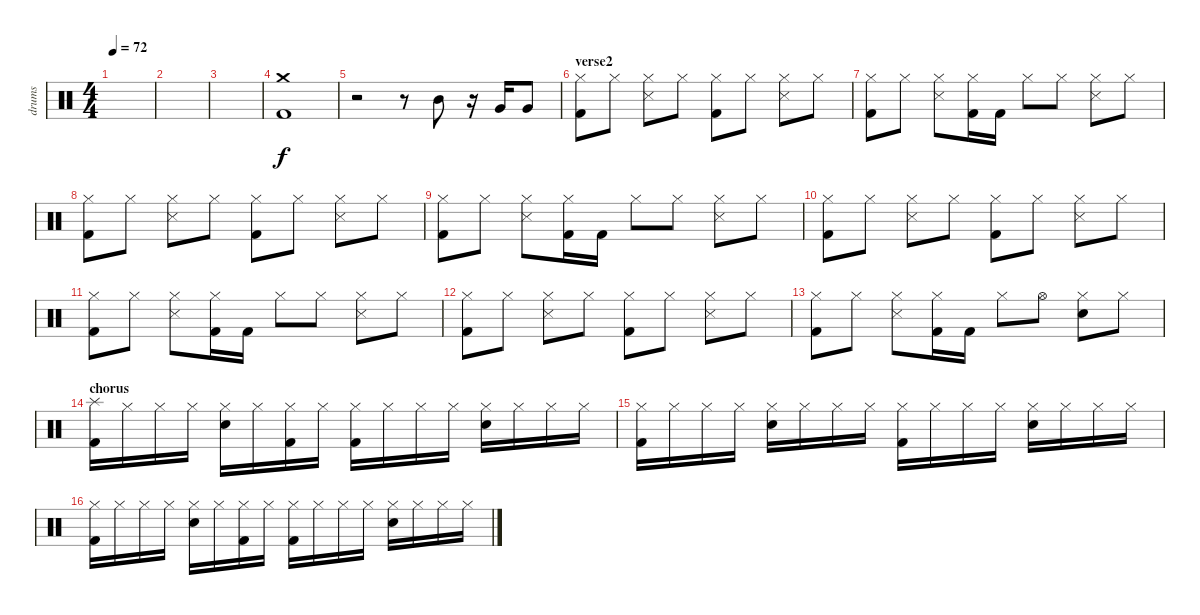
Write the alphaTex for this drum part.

\track ("drums" "drums") {instrument percussion}
\staff {score}
\articulation defaults
\ts (4 4)
\tempo 72
\clef neutral
\ks c
|
|
|
("Crash medium (hit)" "Kick (hit) 2").1 |
r.2 r.8 "Mid Tom (hit)".8 r.16 "Very Low Tom (hit)".16 "Very Low Tom (hit)".8 |
\section ("" "verse2")
("Hi-Hat (closed)" "Kick (hit) 2").8 "Hi-Hat (closed)".8 ("Hi-Hat (closed)" "Snare (side stick) 3").8 "Hi-Hat (closed)".8 ("Hi-Hat (closed)" "Kick (hit) 2").8 "Hi-Hat (closed)".8 ("Hi-Hat (closed)" "Snare (side stick) 3").8 "Hi-Hat (closed)".8 |
("Hi-Hat (closed)" "Kick (hit) 2").8 "Hi-Hat (closed)".8 ("Hi-Hat (closed)" "Snare (side stick) 3").8 ("Hi-Hat (closed)" "Kick (hit) 2").16 "Kick (hit) 2".16 "Hi-Hat (closed)".8 "Hi-Hat (closed)".8 ("Hi-Hat (closed)" "Snare (side stick) 3").8 "Hi-Hat (closed)".8 |
("Hi-Hat (closed)" "Kick (hit) 2").8 "Hi-Hat (closed)".8 ("Hi-Hat (closed)" "Snare (side stick) 3").8 "Hi-Hat (closed)".8 ("Hi-Hat (closed)" "Kick (hit) 2").8 "Hi-Hat (closed)".8 ("Hi-Hat (closed)" "Snare (side stick) 3").8 "Hi-Hat (closed)".8 |
("Hi-Hat (closed)" "Kick (hit) 2").8 "Hi-Hat (closed)".8 ("Hi-Hat (closed)" "Snare (side stick) 3").8 ("Hi-Hat (closed)" "Kick (hit) 2").16 "Kick (hit) 2".16 "Hi-Hat (closed)".8 "Hi-Hat (closed)".8 ("Hi-Hat (closed)" "Snare (side stick) 3").8 "Hi-Hat (closed)".8 |
("Hi-Hat (closed)" "Kick (hit) 2").8 "Hi-Hat (closed)".8 ("Hi-Hat (closed)" "Snare (side stick) 3").8 "Hi-Hat (closed)".8 ("Hi-Hat (closed)" "Kick (hit) 2").8 "Hi-Hat (closed)".8 ("Hi-Hat (closed)" "Snare (side stick) 3").8 "Hi-Hat (closed)".8 |
("Hi-Hat (closed)" "Kick (hit) 2").8 "Hi-Hat (closed)".8 ("Hi-Hat (closed)" "Snare (side stick) 3").8 ("Hi-Hat (closed)" "Kick (hit) 2").16 "Kick (hit) 2".16 "Hi-Hat (closed)".8 "Hi-Hat (closed)".8 ("Hi-Hat (closed)" "Snare (side stick) 3").8 "Hi-Hat (closed)".8 |
("Hi-Hat (closed)" "Kick (hit) 2").8 "Hi-Hat (closed)".8 ("Hi-Hat (closed)" "Snare (side stick) 3").8 "Hi-Hat (closed)".8 ("Hi-Hat (closed)" "Kick (hit) 2").8 "Hi-Hat (closed)".8 ("Hi-Hat (closed)" "Snare (side stick) 3").8 "Hi-Hat (closed)".8 |
("Hi-Hat (closed)" "Kick (hit) 2").8 "Hi-Hat (closed)".8 ("Hi-Hat (closed)" "Snare (side stick) 3").8 ("Hi-Hat (closed)" "Kick (hit) 2").16 "Kick (hit) 2".16 "Hi-Hat (closed)".8 "Hi-Hat (open)".8 ("Hi-Hat (closed)" "Electric Snare (hit)").8 "Hi-Hat (closed)".8 |
\section ("" "chorus")
("Splash (hit)" "Kick (hit) 2").16 "Hi-Hat (closed)".16 "Hi-Hat (closed)".16 "Hi-Hat (closed)".16 ("Hi-Hat (closed)" "Electric Snare (hit)").16 "Hi-Hat (closed)".16 ("Hi-Hat (closed)" "Kick (hit) 2").16 "Hi-Hat (closed)".16 ("Hi-Hat (closed)" "Kick (hit) 2").16 "Hi-Hat (closed)".16 "Hi-Hat (closed)".16 "Hi-Hat (closed)".16 ("Hi-Hat (closed)" "Electric Snare (hit)").16 "Hi-Hat (closed)".16 "Hi-Hat (closed)".16 "Hi-Hat (closed)".16 |
("Hi-Hat (closed)" "Kick (hit) 2").16 "Hi-Hat (closed)".16 "Hi-Hat (closed)".16 "Hi-Hat (closed)".16 ("Hi-Hat (closed)" "Electric Snare (hit)").16 "Hi-Hat (closed)".16 "Hi-Hat (closed)".16 "Hi-Hat (closed)".16 ("Hi-Hat (closed)" "Kick (hit) 2").16 "Hi-Hat (closed)".16 "Hi-Hat (closed)".16 "Hi-Hat (closed)".16 ("Hi-Hat (closed)" "Electric Snare (hit)").16 "Hi-Hat (closed)".16 "Hi-Hat (closed)".16 "Hi-Hat (closed)".16 |
("Hi-Hat (closed)" "Kick (hit) 2").16 "Hi-Hat (closed)".16 "Hi-Hat (closed)".16 "Hi-Hat (closed)".16 ("Hi-Hat (closed)" "Electric Snare (hit)").16 "Hi-Hat (closed)".16 ("Hi-Hat (closed)" "Kick (hit) 2").16 "Hi-Hat (closed)".16 ("Hi-Hat (closed)" "Kick (hit) 2").16 "Hi-Hat (closed)".16 "Hi-Hat (closed)".16 "Hi-Hat (closed)".16 ("Hi-Hat (closed)" "Electric Snare (hit)").16 "Hi-Hat (closed)".16 "Hi-Hat (closed)".16 "Hi-Hat (closed)".16
